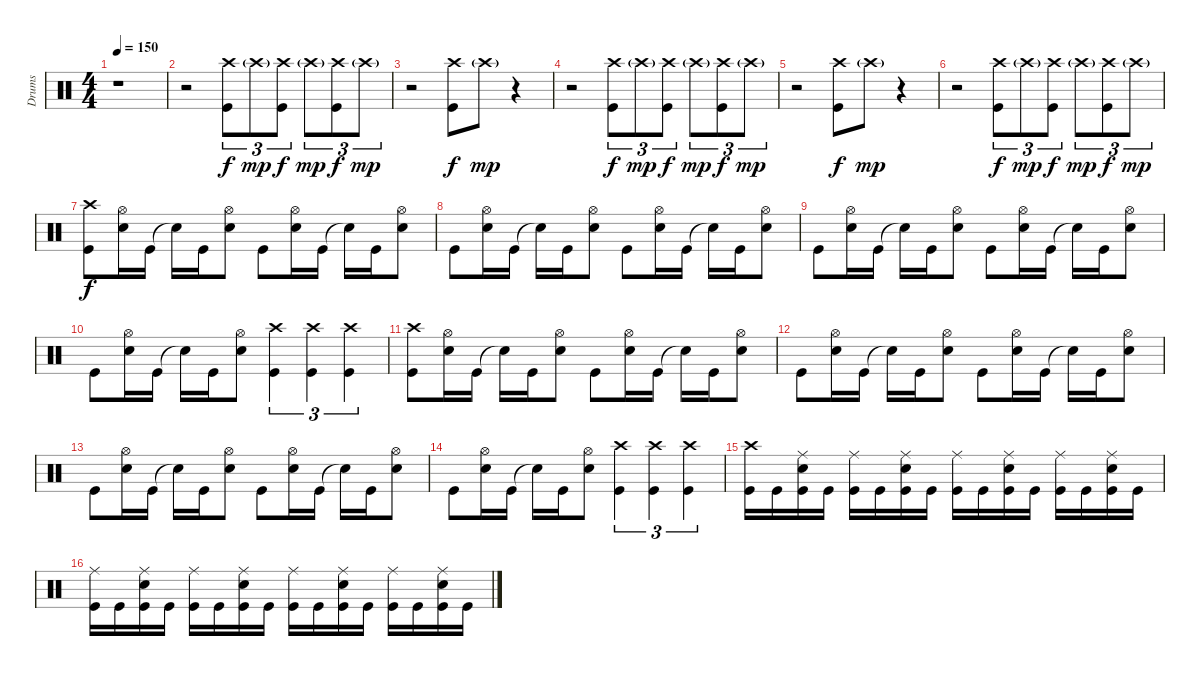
\track ("Drums" "Drums") {instrument percussion}
\staff {score}
\articulation defaults
\ts (4 4)
\tempo 150
\clef neutral
\ks c
r.1{dy mp} |
r.2 ("Kick (hit)" "Crash high (hit)").8{tu (3 2) dy f} "Crash high (hit)"{g}.8{tu (3 2) dy mp} ("Kick (hit)" "Crash high (hit)").8{tu (3 2) dy f} "Crash high (hit)"{g}.8{tu (3 2) dy mp} ("Kick (hit)" "Crash high (hit)").8{tu (3 2) dy f} "Crash high (hit)"{g}.8{tu (3 2) dy mp} |
r.2 ("Kick (hit)" "Crash high (hit)").8{dy f} "Crash high (hit)"{g}.8{dy mp} r.4 |
r.2 ("Kick (hit)" "Crash high (hit)").8{tu (3 2) dy f} "Crash high (hit)"{g}.8{tu (3 2) dy mp} ("Kick (hit)" "Crash high (hit)").8{tu (3 2) dy f} "Crash high (hit)"{g}.8{tu (3 2) dy mp} ("Kick (hit)" "Crash high (hit)").8{tu (3 2) dy f} "Crash high (hit)"{g}.8{tu (3 2) dy mp} |
r.2 ("Kick (hit)" "Crash high (hit)").8{dy f} "Crash high (hit)"{g}.8{dy mp} r.4 |
r.2 ("Kick (hit)" "Crash high (hit)").8{tu (3 2) dy f} "Crash high (hit)"{g}.8{tu (3 2) dy mp} ("Kick (hit)" "Crash high (hit)").8{tu (3 2) dy f} "Crash high (hit)"{g}.8{tu (3 2) dy mp} ("Kick (hit)" "Crash high (hit)").8{tu (3 2) dy f} "Crash high (hit)"{g}.8{tu (3 2) dy mp} |
("Kick (hit)" "Crash high (hit)").8{dy f} ("Snare (hit) 2" "Hi-Hat (open)").16 "Kick (hit)".16 "Snare (hit)"{t}.16 "Kick (hit)".16 ("Snare (hit) 2" "Hi-Hat (open)").8 "Kick (hit)".8 ("Snare (hit) 2" "Hi-Hat (open)").16 "Kick (hit)".16 "Snare (hit)"{t}.16 "Kick (hit)".16 ("Snare (hit) 2" "Hi-Hat (open)").8 |
"Kick (hit)".8 ("Snare (hit) 2" "Hi-Hat (open)").16 "Kick (hit)".16 "Snare (hit)"{t}.16 "Kick (hit)".16 ("Snare (hit) 2" "Hi-Hat (open)").8 "Kick (hit)".8 ("Snare (hit) 2" "Hi-Hat (open)").16 "Kick (hit)".16 "Snare (hit)"{t}.16 "Kick (hit)".16 ("Snare (hit) 2" "Hi-Hat (open)").8 |
"Kick (hit)".8 ("Snare (hit) 2" "Hi-Hat (open)").16 "Kick (hit)".16 "Snare (hit)"{t}.16 "Kick (hit)".16 ("Snare (hit) 2" "Hi-Hat (open)").8 "Kick (hit)".8 ("Snare (hit) 2" "Hi-Hat (open)").16 "Kick (hit)".16 "Snare (hit)"{t}.16 "Kick (hit)".16 ("Snare (hit) 2" "Hi-Hat (open)").8 |
"Kick (hit)".8 ("Snare (hit) 2" "Hi-Hat (open)").16 "Kick (hit)".16 "Snare (hit)"{t}.16 "Kick (hit)".16 ("Snare (hit) 2" "Hi-Hat (open)").8 ("Kick (hit)" "Crash high (hit)").4{tu (3 2)} ("Kick (hit)" "Crash high (hit)").4{tu (3 2)} ("Kick (hit)" "Crash high (hit)").4{tu (3 2)} |
("Kick (hit)" "Crash high (hit)").8 ("Snare (hit) 2" "Hi-Hat (open)").16 "Kick (hit)".16 "Snare (hit)"{t}.16 "Kick (hit)".16 ("Snare (hit) 2" "Hi-Hat (open)").8 "Kick (hit)".8 ("Snare (hit) 2" "Hi-Hat (open)").16 "Kick (hit)".16 "Snare (hit)"{t}.16 "Kick (hit)".16 ("Snare (hit) 2" "Hi-Hat (open)").8 |
"Kick (hit)".8 ("Snare (hit) 2" "Hi-Hat (open)").16 "Kick (hit)".16 "Snare (hit)"{t}.16 "Kick (hit)".16 ("Snare (hit) 2" "Hi-Hat (open)").8 "Kick (hit)".8 ("Snare (hit) 2" "Hi-Hat (open)").16 "Kick (hit)".16 "Snare (hit)"{t}.16 "Kick (hit)".16 ("Snare (hit) 2" "Hi-Hat (open)").8 |
"Kick (hit)".8 ("Snare (hit) 2" "Hi-Hat (open)").16 "Kick (hit)".16 "Snare (hit)"{t}.16 "Kick (hit)".16 ("Snare (hit) 2" "Hi-Hat (open)").8 "Kick (hit)".8 ("Snare (hit) 2" "Hi-Hat (open)").16 "Kick (hit)".16 "Snare (hit)"{t}.16 "Kick (hit)".16 ("Snare (hit) 2" "Hi-Hat (open)").8 |
"Kick (hit)".8 ("Snare (hit) 2" "Hi-Hat (open)").16 "Kick (hit)".16 "Snare (hit)"{t}.16 "Kick (hit)".16 ("Snare (hit) 2" "Hi-Hat (open)").8 ("Kick (hit)" "Crash high (hit)").4{tu (3 2)} ("Kick (hit)" "Crash high (hit)").4{tu (3 2)} ("Kick (hit)" "Crash high (hit)").4{tu (3 2)} |
("Kick (hit)" "Crash high (hit)").16 "Kick (hit)".16 ("Kick (hit)" "Snare (hit) 2" "Ride (middle)").16 "Kick (hit)".16 ("Kick (hit)" "Ride (middle)").16 "Kick (hit)".16 ("Kick (hit)" "Snare (hit) 2" "Ride (middle)").16 "Kick (hit)".16 ("Kick (hit)" "Ride (middle)").16 "Kick (hit)".16 ("Kick (hit)" "Snare (hit) 2" "Ride (middle)").16 "Kick (hit)".16 ("Kick (hit)" "Ride (middle)").16 "Kick (hit)".16 ("Kick (hit)" "Snare (hit) 2" "Ride (middle)").16 "Kick (hit)".16 |
("Kick (hit)" "Ride (middle)").16 "Kick (hit)".16 ("Kick (hit)" "Snare (hit) 2" "Ride (middle)").16 "Kick (hit)".16 ("Kick (hit)" "Ride (middle)").16 "Kick (hit)".16 ("Kick (hit)" "Snare (hit) 2" "Ride (middle)").16 "Kick (hit)".16 ("Kick (hit)" "Ride (middle)").16 "Kick (hit)".16 ("Kick (hit)" "Snare (hit) 2" "Ride (middle)").16 "Kick (hit)".16 ("Kick (hit)" "Ride (middle)").16 "Kick (hit)".16 ("Kick (hit)" "Snare (hit) 2" "Ride (middle)").16 "Kick (hit)".16
